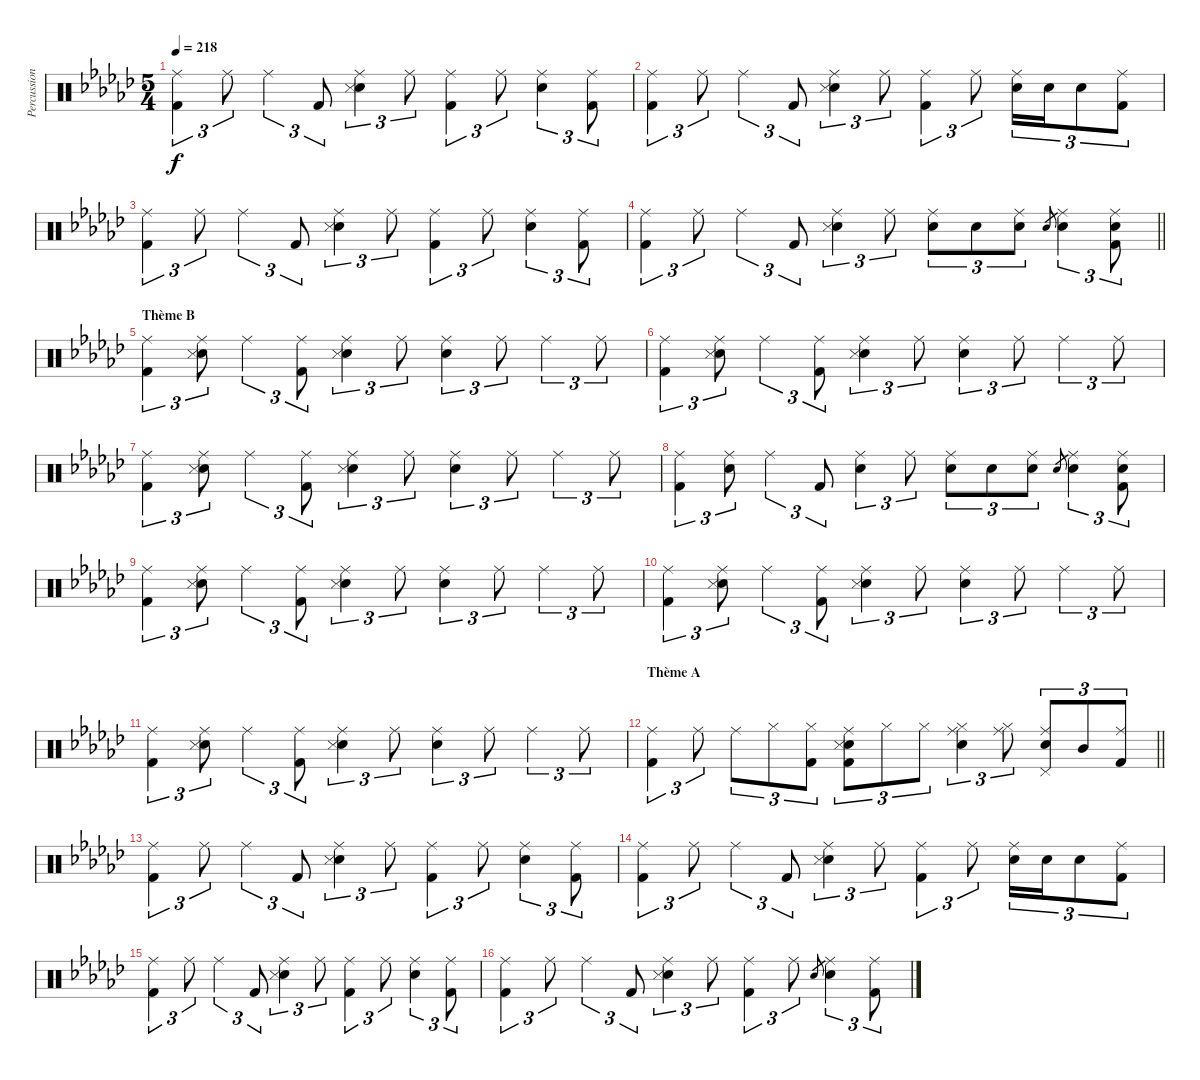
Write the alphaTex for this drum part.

\track ("Percussions" "Percussion") {instrument percussion}
\staff {score}
\articulation defaults
\ts (5 4)
\tempo 218
\clef neutral
\ks ebminor
("Ride (middle)" "Kick (hit) 2").4{tu (3 2) dy f} "Ride (middle)".8{tu (3 2)} "Ride (middle)".4{tu (3 2)} "Kick (hit) 2".8{tu (3 2)} ("Ride (middle)" "Snare (hit) 2" "Snare (side stick) 3").4{tu (3 2)} "Ride (middle)".8{tu (3 2)} ("Ride (middle)" "Kick (hit) 2").4{tu (3 2)} "Ride (middle)".8{tu (3 2)} ("Ride (middle)" "Snare (hit) 2").4{tu (3 2)} ("Ride (middle)" "Kick (hit) 2").8{tu (3 2)} |
("Ride (middle)" "Kick (hit) 2").4{tu (3 2)} "Ride (middle)".8{tu (3 2)} "Ride (middle)".4{tu (3 2)} "Kick (hit) 2".8{tu (3 2)} ("Ride (middle)" "Snare (hit) 2" "Snare (side stick) 3").4{tu (3 2)} "Ride (middle)".8{tu (3 2)} ("Ride (middle)" "Kick (hit) 2").4{tu (3 2)} "Ride (middle)".8{tu (3 2)} ("Ride (middle)" "Snare (hit) 2").16{tu (3 2)} "Snare (hit) 2".16{tu (3 2)} "Snare (hit) 2".8{tu (3 2)} ("Ride (middle)" "Kick (hit) 2").8{tu (3 2)} |
("Ride (middle)" "Kick (hit) 2").4{tu (3 2)} "Ride (middle)".8{tu (3 2)} "Ride (middle)".4{tu (3 2)} "Kick (hit) 2".8{tu (3 2)} ("Ride (middle)" "Snare (hit) 2" "Snare (side stick) 3").4{tu (3 2)} "Ride (middle)".8{tu (3 2)} ("Ride (middle)" "Kick (hit) 2").4{tu (3 2)} "Ride (middle)".8{tu (3 2)} ("Ride (middle)" "Snare (hit) 2").4{tu (3 2)} ("Ride (middle)" "Kick (hit) 2").8{tu (3 2)} |
\barLineRight lightlight
("Ride (middle)" "Kick (hit) 2").4{tu (3 2)} "Ride (middle)".8{tu (3 2)} "Ride (middle)".4{tu (3 2)} "Kick (hit) 2".8{tu (3 2)} ("Ride (middle)" "Snare (hit) 2" "Snare (side stick) 3").4{tu (3 2)} "Ride (middle)".8{tu (3 2)} ("Ride (middle)" "Snare (hit) 2").8{tu (3 2)} "Snare (hit) 2".8{tu (3 2)} ("Ride (middle)" "Snare (hit) 2").8{tu (3 2)} "Snare (hit) 2".8{gr} ("Ride (middle)" "Snare (hit) 2").4{tu (3 2)} ("Ride (middle)" "Snare (hit) 2" "Kick (hit) 2").8{tu (3 2)} |
\section ("" "Thème B")
("Ride (middle)" "Kick (hit) 2").4{tu (3 2) volume 15 balance 8} ("Ride (middle)" "Snare (hit) 2" "Snare (side stick) 3").8{tu (3 2)} "Ride (middle)".4{tu (3 2)} ("Ride (middle)" "Kick (hit) 2").8{tu (3 2)} ("Ride (middle)" "Snare (hit) 2" "Snare (side stick) 3").4{tu (3 2)} "Ride (middle)".8{tu (3 2)} ("Ride (middle)" "Snare (hit) 2").4{tu (3 2)} "Ride (middle)".8{tu (3 2)} "Ride (middle)".4{tu (3 2)} "Ride (middle)".8{tu (3 2)} |
("Ride (middle)" "Kick (hit) 2").4{tu (3 2)} ("Ride (middle)" "Snare (hit) 2" "Snare (side stick) 3").8{tu (3 2)} "Ride (middle)".4{tu (3 2)} ("Ride (middle)" "Kick (hit) 2").8{tu (3 2)} ("Ride (middle)" "Snare (hit) 2" "Snare (side stick) 3").4{tu (3 2)} "Ride (middle)".8{tu (3 2)} ("Ride (middle)" "Snare (hit) 2").4{tu (3 2)} "Ride (middle)".8{tu (3 2)} "Ride (middle)".4{tu (3 2)} "Ride (middle)".8{tu (3 2)} |
("Ride (middle)" "Kick (hit) 2").4{tu (3 2)} ("Ride (middle)" "Snare (hit) 2" "Snare (side stick) 3").8{tu (3 2)} "Ride (middle)".4{tu (3 2)} ("Ride (middle)" "Kick (hit) 2").8{tu (3 2)} ("Ride (middle)" "Snare (hit) 2" "Snare (side stick) 3").4{tu (3 2)} "Ride (middle)".8{tu (3 2)} ("Ride (middle)" "Snare (hit) 2").4{tu (3 2)} "Ride (middle)".8{tu (3 2)} "Ride (middle)".4{tu (3 2)} "Ride (middle)".8{tu (3 2)} |
("Ride (middle)" "Kick (hit) 2").4{tu (3 2)} ("Ride (middle)" "Snare (hit) 2").8{tu (3 2)} "Ride (middle)".4{tu (3 2)} "Kick (hit) 2".8{tu (3 2)} ("Ride (middle)" "Snare (hit) 2").4{tu (3 2)} "Ride (middle)".8{tu (3 2)} ("Ride (middle)" "Snare (hit) 2").8{tu (3 2)} "Snare (hit) 2".8{tu (3 2)} ("Ride (middle)" "Snare (hit) 2").8{tu (3 2)} "Snare (hit) 2".8{gr} ("Ride (middle)" "Snare (hit) 2").4{tu (3 2)} ("Ride (middle)" "Snare (hit) 2" "Kick (hit) 2").8{tu (3 2)} |
("Ride (middle)" "Kick (hit) 2").4{tu (3 2)} ("Ride (middle)" "Snare (hit) 2" "Snare (side stick) 3").8{tu (3 2)} "Ride (middle)".4{tu (3 2)} ("Ride (middle)" "Kick (hit) 2").8{tu (3 2)} ("Ride (middle)" "Snare (hit) 2" "Snare (side stick) 3").4{tu (3 2)} "Ride (middle)".8{tu (3 2)} ("Ride (middle)" "Snare (hit) 2").4{tu (3 2)} "Ride (middle)".8{tu (3 2)} "Ride (middle)".4{tu (3 2)} "Ride (middle)".8{tu (3 2)} |
("Ride (middle)" "Kick (hit) 2").4{tu (3 2)} ("Ride (middle)" "Snare (hit) 2" "Snare (side stick) 3").8{tu (3 2)} "Ride (middle)".4{tu (3 2)} ("Ride (middle)" "Kick (hit) 2").8{tu (3 2)} ("Ride (middle)" "Snare (hit) 2" "Snare (side stick) 3").4{tu (3 2)} "Ride (middle)".8{tu (3 2)} ("Ride (middle)" "Snare (hit) 2").4{tu (3 2)} "Ride (middle)".8{tu (3 2)} "Ride (middle)".4{tu (3 2)} "Ride (middle)".8{tu (3 2)} |
("Ride (middle)" "Kick (hit) 2").4{tu (3 2)} ("Ride (middle)" "Snare (hit) 2" "Snare (side stick) 3").8{tu (3 2)} "Ride (middle)".4{tu (3 2)} ("Ride (middle)" "Kick (hit) 2").8{tu (3 2)} ("Ride (middle)" "Snare (hit) 2" "Snare (side stick) 3").4{tu (3 2)} "Ride (middle)".8{tu (3 2)} ("Ride (middle)" "Snare (hit) 2").4{tu (3 2)} "Ride (middle)".8{tu (3 2)} "Ride (middle)".4{tu (3 2)} "Ride (middle)".8{tu (3 2)} |
\section ("" "Thème A")
\barLineRight lightlight
("Ride (middle)" "Kick (hit) 2").4{tu (3 2)} "Ride (middle)".8{tu (3 2)} "Ride (middle)".8{tu (3 2)} "Hi-Hat (closed)".8{tu (3 2)} ("Hi-Hat (closed)" "Kick (hit) 2").8{tu (3 2)} ("Ride (middle)" "Snare (hit) 2" "Snare (side stick) 3" "Kick (hit) 2").8{tu (3 2)} "Hi-Hat (closed)".8{tu (3 2)} "Hi-Hat (closed)".8{tu (3 2)} ("Ride (middle)" "Hi-Hat (closed)" "Snare (hit) 2").4{tu (3 2)} ("Ride (middle)" "Hi-Hat (closed)").8{tu (3 2)} ("Ride (middle)" "Pedal Hi-Hat (hit)" "Snare (hit) 2").8{tu (3 2)} "Mid Tom (hit)".8{tu (3 2)} ("Ride (middle)" "Kick (hit) 2").8{tu (3 2)} |
("Ride (middle)" "Kick (hit) 2").4{tu (3 2) volume 14 balance 8} "Ride (middle)".8{tu (3 2)} "Ride (middle)".4{tu (3 2)} "Kick (hit) 2".8{tu (3 2)} ("Ride (middle)" "Snare (hit) 2" "Snare (side stick) 3").4{tu (3 2)} "Ride (middle)".8{tu (3 2)} ("Ride (middle)" "Kick (hit) 2").4{tu (3 2)} "Ride (middle)".8{tu (3 2)} ("Ride (middle)" "Snare (hit) 2").4{tu (3 2)} ("Ride (middle)" "Kick (hit) 2").8{tu (3 2)} |
("Ride (middle)" "Kick (hit) 2").4{tu (3 2)} "Ride (middle)".8{tu (3 2)} "Ride (middle)".4{tu (3 2)} "Kick (hit) 2".8{tu (3 2)} ("Ride (middle)" "Snare (hit) 2" "Snare (side stick) 3").4{tu (3 2)} "Ride (middle)".8{tu (3 2)} ("Ride (middle)" "Kick (hit) 2").4{tu (3 2)} "Ride (middle)".8{tu (3 2)} ("Ride (middle)" "Snare (hit) 2").16{tu (3 2)} "Snare (hit) 2".16{tu (3 2)} "Snare (hit) 2".8{tu (3 2)} ("Ride (middle)" "Kick (hit) 2").8{tu (3 2)} |
("Ride (middle)" "Kick (hit) 2").4{tu (3 2)} "Ride (middle)".8{tu (3 2)} "Ride (middle)".4{tu (3 2)} "Kick (hit) 2".8{tu (3 2)} ("Ride (middle)" "Snare (hit) 2" "Snare (side stick) 3").4{tu (3 2)} "Ride (middle)".8{tu (3 2)} ("Ride (middle)" "Kick (hit) 2").4{tu (3 2)} "Ride (middle)".8{tu (3 2)} ("Ride (middle)" "Snare (hit) 2").4{tu (3 2)} ("Ride (middle)" "Kick (hit) 2").8{tu (3 2)} |
("Ride (middle)" "Kick (hit) 2").4{tu (3 2)} "Ride (middle)".8{tu (3 2)} "Ride (middle)".4{tu (3 2)} "Kick (hit) 2".8{tu (3 2)} ("Ride (middle)" "Snare (hit) 2" "Snare (side stick) 3").4{tu (3 2)} "Ride (middle)".8{tu (3 2)} ("Ride (middle)" "Kick (hit) 2").4{tu (3 2)} "Ride (middle)".8{tu (3 2)} "Snare (hit) 2".8{gr} ("Ride (middle)" "Snare (hit) 2").4{tu (3 2)} ("Ride (middle)" "Kick (hit) 2").8{tu (3 2)}
